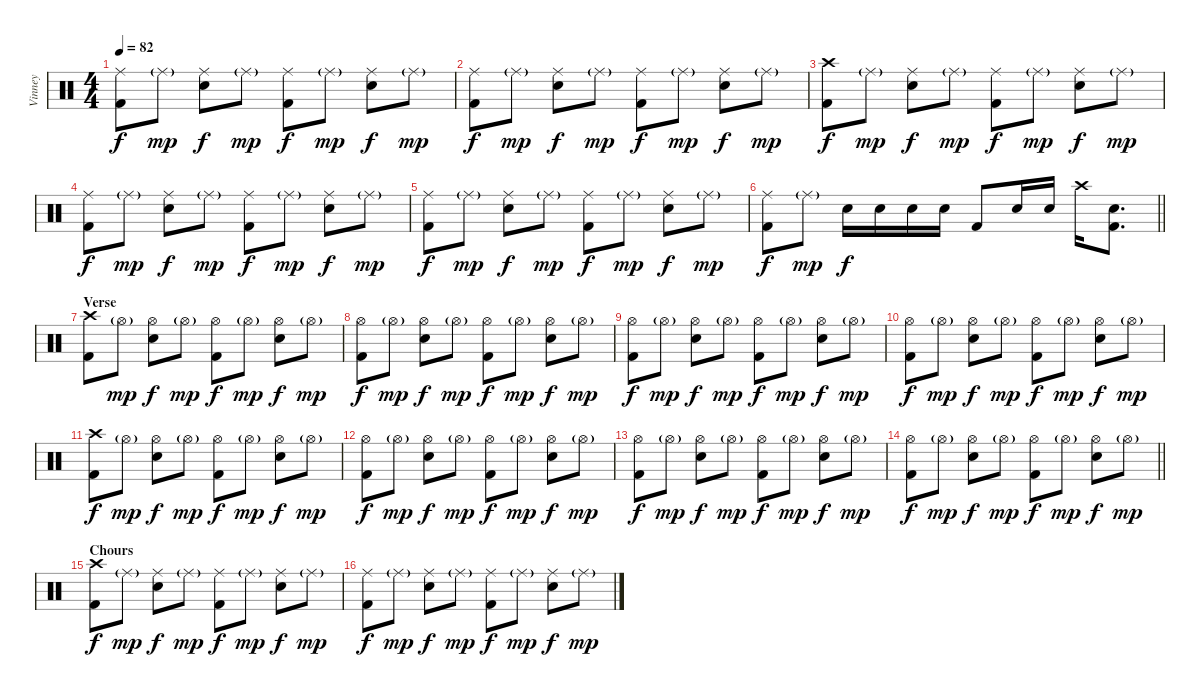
\track ("Vinney" "Vinney") {instrument percussion}
\staff {score}
\articulation defaults
\ts (4 4)
\tempo 82
\clef neutral
\ks c
("Ride (middle)" "Kick (hit) 2").8{dy f} "Ride (middle)"{g}.8{dy mp} ("Ride (middle)" "Electric Snare (hit)").8{dy f} "Ride (middle)"{g}.8{dy mp} ("Ride (middle)" "Kick (hit) 2").8{dy f} "Ride (middle)"{g}.8{dy mp} ("Ride (middle)" "Electric Snare (hit)").8{dy f} "Ride (middle)"{g}.8{dy mp} |
("Ride (middle)" "Kick (hit) 2").8{dy f} "Ride (middle)"{g}.8{dy mp} ("Ride (middle)" "Electric Snare (hit)").8{dy f} "Ride (middle)"{g}.8{dy mp} ("Ride (middle)" "Kick (hit) 2").8{dy f} "Ride (middle)"{g}.8{dy mp} ("Ride (middle)" "Electric Snare (hit)").8{dy f} "Ride (middle)"{g}.8{dy mp} |
("Crash high (hit)" "Kick (hit) 2").8{dy f} "Ride (middle)"{g}.8{dy mp} ("Ride (middle)" "Electric Snare (hit)").8{dy f} "Ride (middle)"{g}.8{dy mp} ("Ride (middle)" "Kick (hit) 2").8{dy f} "Ride (middle)"{g}.8{dy mp} ("Ride (middle)" "Electric Snare (hit)").8{dy f} "Ride (middle)"{g}.8{dy mp} |
("Ride (middle)" "Kick (hit) 2").8{dy f} "Ride (middle)"{g}.8{dy mp} ("Ride (middle)" "Electric Snare (hit)").8{dy f} "Ride (middle)"{g}.8{dy mp} ("Ride (middle)" "Kick (hit) 2").8{dy f} "Ride (middle)"{g}.8{dy mp} ("Ride (middle)" "Electric Snare (hit)").8{dy f} "Ride (middle)"{g}.8{dy mp} |
("Ride (middle)" "Kick (hit) 2").8{dy f} "Ride (middle)"{g}.8{dy mp} ("Ride (middle)" "Electric Snare (hit)").8{dy f} "Ride (middle)"{g}.8{dy mp} ("Ride (middle)" "Kick (hit) 2").8{dy f} "Ride (middle)"{g}.8{dy mp} ("Ride (middle)" "Electric Snare (hit)").8{dy f} "Ride (middle)"{g}.8{dy mp} |
\barLineRight lightlight
("Ride (middle)" "Kick (hit) 2").8{dy f} "Ride (middle)"{g}.8{dy mp} "Electric Snare (hit)".16{dy f} "Electric Snare (hit)".16 "Electric Snare (hit)".16 "Electric Snare (hit)".16 "Kick (hit) 2".8 "Electric Snare (hit)".16 "Electric Snare (hit)".16 "Crash high (hit)".16 ("Electric Snare (hit)" "Kick (hit) 2").8{d} |
\section ("" "Verse")
("Crash high (hit)" "Kick (hit) 2").8 "Hi-Hat (open)"{g}.8{dy mp} ("Hi-Hat (open)" "Electric Snare (hit)").8{dy f} "Hi-Hat (open)"{g}.8{dy mp} ("Hi-Hat (open)" "Kick (hit) 2").8{dy f} "Hi-Hat (open)"{g}.8{dy mp} ("Hi-Hat (open)" "Electric Snare (hit)").8{dy f} "Hi-Hat (open)"{g}.8{dy mp} |
("Hi-Hat (open)" "Kick (hit) 2").8{dy f} "Hi-Hat (open)"{g}.8{dy mp} ("Hi-Hat (open)" "Electric Snare (hit)").8{dy f} "Hi-Hat (open)"{g}.8{dy mp} ("Hi-Hat (open)" "Kick (hit) 2").8{dy f} "Hi-Hat (open)"{g}.8{dy mp} ("Hi-Hat (open)" "Electric Snare (hit)").8{dy f} "Hi-Hat (open)"{g}.8{dy mp} |
("Hi-Hat (open)" "Kick (hit) 2").8{dy f} "Hi-Hat (open)"{g}.8{dy mp} ("Hi-Hat (open)" "Electric Snare (hit)").8{dy f} "Hi-Hat (open)"{g}.8{dy mp} ("Hi-Hat (open)" "Kick (hit) 2").8{dy f} "Hi-Hat (open)"{g}.8{dy mp} ("Hi-Hat (open)" "Electric Snare (hit)").8{dy f} "Hi-Hat (open)"{g}.8{dy mp} |
("Hi-Hat (open)" "Kick (hit) 2").8{dy f} "Hi-Hat (open)"{g}.8{dy mp} ("Hi-Hat (open)" "Electric Snare (hit)").8{dy f} "Hi-Hat (open)"{g}.8{dy mp} ("Hi-Hat (open)" "Kick (hit) 2").8{dy f} "Hi-Hat (open)"{g}.8{dy mp} ("Hi-Hat (open)" "Electric Snare (hit)").8{dy f} "Hi-Hat (open)"{g}.8{dy mp} |
("Crash high (hit)" "Kick (hit) 2").8{dy f} "Hi-Hat (open)"{g}.8{dy mp} ("Hi-Hat (open)" "Electric Snare (hit)").8{dy f} "Hi-Hat (open)"{g}.8{dy mp} ("Hi-Hat (open)" "Kick (hit) 2").8{dy f} "Hi-Hat (open)"{g}.8{dy mp} ("Hi-Hat (open)" "Electric Snare (hit)").8{dy f} "Hi-Hat (open)"{g}.8{dy mp} |
("Hi-Hat (open)" "Kick (hit) 2").8{dy f} "Hi-Hat (open)"{g}.8{dy mp} ("Hi-Hat (open)" "Electric Snare (hit)").8{dy f} "Hi-Hat (open)"{g}.8{dy mp} ("Hi-Hat (open)" "Kick (hit) 2").8{dy f} "Hi-Hat (open)"{g}.8{dy mp} ("Hi-Hat (open)" "Electric Snare (hit)").8{dy f} "Hi-Hat (open)"{g}.8{dy mp} |
("Hi-Hat (open)" "Kick (hit) 2").8{dy f} "Hi-Hat (open)"{g}.8{dy mp} ("Hi-Hat (open)" "Electric Snare (hit)").8{dy f} "Hi-Hat (open)"{g}.8{dy mp} ("Hi-Hat (open)" "Kick (hit) 2").8{dy f} "Hi-Hat (open)"{g}.8{dy mp} ("Hi-Hat (open)" "Electric Snare (hit)").8{dy f} "Hi-Hat (open)"{g}.8{dy mp} |
\barLineRight lightlight
("Hi-Hat (open)" "Kick (hit) 2").8{dy f} "Hi-Hat (open)"{g}.8{dy mp} ("Hi-Hat (open)" "Electric Snare (hit)").8{dy f} "Hi-Hat (open)"{g}.8{dy mp} ("Hi-Hat (open)" "Kick (hit) 2").8{dy f} "Hi-Hat (open)"{g}.8{dy mp} ("Hi-Hat (open)" "Electric Snare (hit)").8{dy f} "Hi-Hat (open)"{g}.8{dy mp} |
\section ("" "Chours")
("Crash high (hit)" "Kick (hit) 2").8{dy f} "Ride (middle)"{g}.8{dy mp} ("Ride (middle)" "Electric Snare (hit)").8{dy f} "Ride (middle)"{g}.8{dy mp} ("Ride (middle)" "Kick (hit) 2").8{dy f} "Ride (middle)"{g}.8{dy mp} ("Ride (middle)" "Electric Snare (hit)").8{dy f} "Ride (middle)"{g}.8{dy mp} |
("Ride (middle)" "Kick (hit) 2").8{dy f} "Ride (middle)"{g}.8{dy mp} ("Ride (middle)" "Electric Snare (hit)").8{dy f} "Ride (middle)"{g}.8{dy mp} ("Ride (middle)" "Kick (hit) 2").8{dy f} "Ride (middle)"{g}.8{dy mp} ("Ride (middle)" "Electric Snare (hit)").8{dy f} "Ride (middle)"{g}.8{dy mp}
